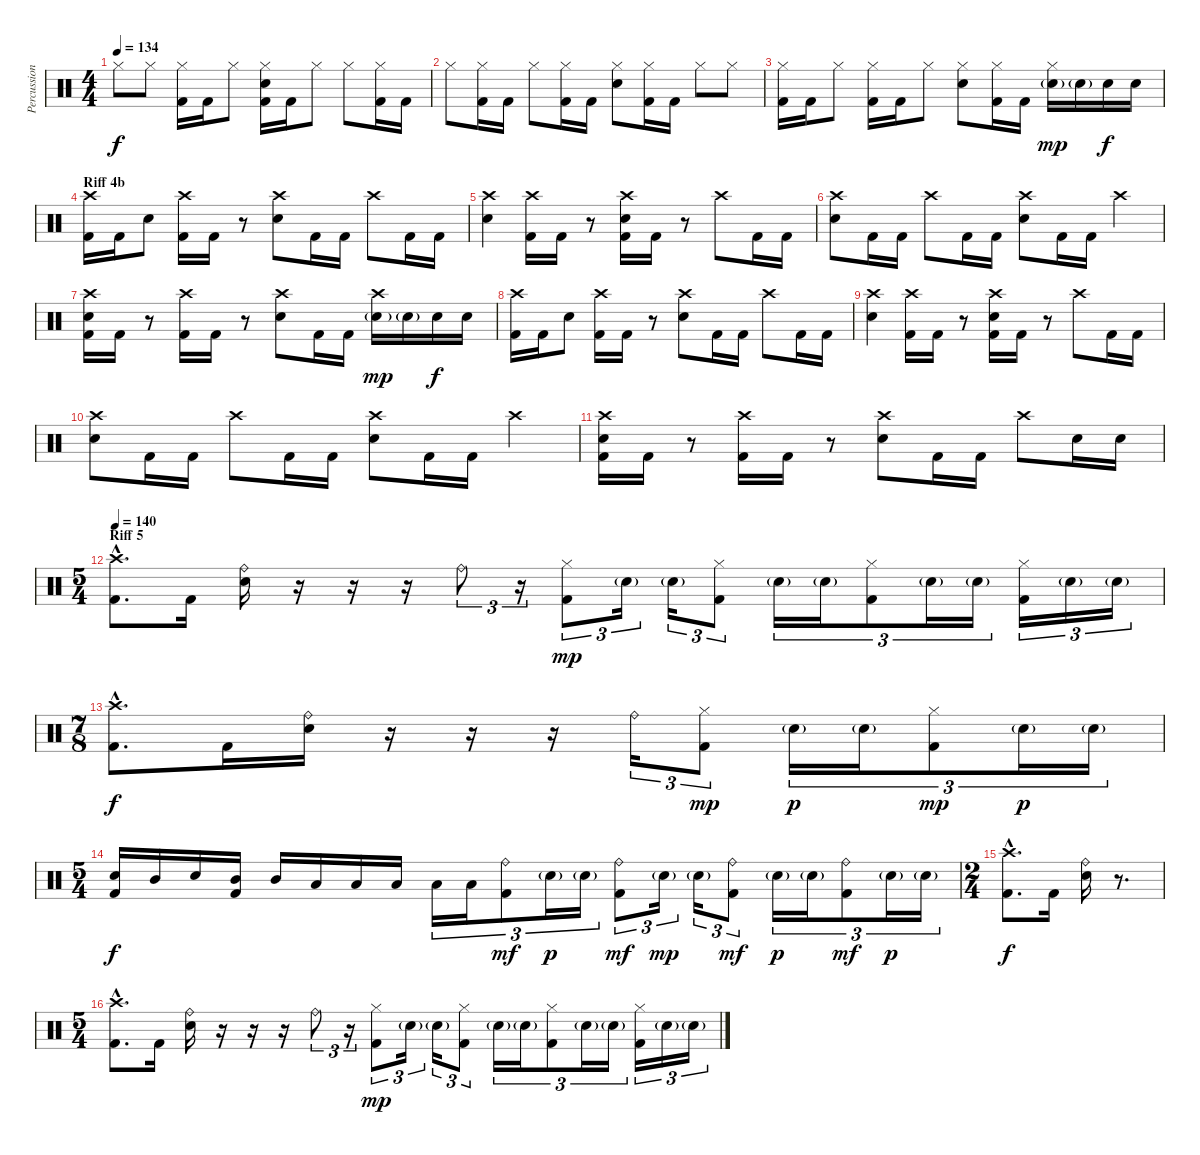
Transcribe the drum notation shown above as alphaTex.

\track ("Percussion" "Percussion") {instrument percussion}
\staff {score}
\articulation defaults
\ts (4 4)
\tempo 134
\clef neutral
\ks c "Hi-Hat (closed)".8{dy f} "Hi-Hat (closed)".8
("Hi-Hat (closed)" "Kick (hit) 2").16 "Kick (hit) 2".16 "Hi-Hat (closed)".8 ("Hi-Hat (closed)" "Electric Snare (hit)" "Kick (hit) 2").16 "Kick (hit) 2".16 "Hi-Hat (closed)".8 "Hi-Hat (closed)".8 ("Hi-Hat (closed)" "Kick (hit) 2").16 "Kick (hit) 2".16 |
"Hi-Hat (closed)".8 ("Hi-Hat (closed)" "Kick (hit) 2").16 "Kick (hit) 2".16 "Hi-Hat (closed)".8 ("Hi-Hat (closed)" "Kick (hit) 2").16 "Kick (hit) 2".16 ("Hi-Hat (closed)" "Electric Snare (hit)").8 ("Hi-Hat (closed)" "Kick (hit) 2").16 "Kick (hit) 2".16 "Hi-Hat (closed)".8 "Hi-Hat (closed)".8 |
("Hi-Hat (closed)" "Kick (hit) 2").16 "Kick (hit) 2".16 "Hi-Hat (closed)".8 ("Hi-Hat (closed)" "Kick (hit) 2").16 "Kick (hit) 2".16 "Hi-Hat (closed)".8 ("Hi-Hat (closed)" "Electric Snare (hit)").8 ("Hi-Hat (closed)" "Kick (hit) 2").16 "Kick (hit) 2".16 ("Hi-Hat (closed)" "Electric Snare (hit)"{g}).16{dy mp} "Electric Snare (hit)"{g}.16 "Electric Snare (hit)".16{dy f} "Electric Snare (hit)".16 |
\section ("" "Riff 4b")
("Crash high (hit)" "Kick (hit) 2").16 "Kick (hit) 2".16 "Electric Snare (hit)".8 ("Crash high (hit)" "Kick (hit) 2").16 "Kick (hit) 2".16 r.8 ("Crash high (hit)" "Electric Snare (hit)").8 "Kick (hit) 2".16 "Kick (hit) 2".16 "Crash high (hit)".8 "Kick (hit) 2".16 "Kick (hit) 2".16 |
("Crash high (hit)" "Electric Snare (hit)").4 ("Crash high (hit)" "Kick (hit) 2").16 "Kick (hit) 2".16 r.8 ("Crash high (hit)" "Electric Snare (hit)" "Kick (hit) 2").16 "Kick (hit) 2".16 r.8 "Crash high (hit)".8 "Kick (hit) 2".16 "Kick (hit) 2".16 |
("Crash high (hit)" "Electric Snare (hit)").8 "Kick (hit) 2".16 "Kick (hit) 2".16 "Crash high (hit)".8 "Kick (hit) 2".16 "Kick (hit) 2".16 ("Crash high (hit)" "Electric Snare (hit)").8 "Kick (hit) 2".16 "Kick (hit) 2".16 "Crash high (hit)".4 |
("Crash high (hit)" "Electric Snare (hit)" "Kick (hit) 2").16 "Kick (hit) 2".16 r.8 ("Crash high (hit)" "Kick (hit) 2").16 "Kick (hit) 2".16 r.8 ("Crash high (hit)" "Electric Snare (hit)").8 "Kick (hit) 2".16 "Kick (hit) 2".16 ("Crash high (hit)" "Electric Snare (hit)"{g}).16{dy mp} "Electric Snare (hit)"{g}.16 "Electric Snare (hit)".16{dy f} "Electric Snare (hit)".16 |
("Crash high (hit)" "Kick (hit) 2").16 "Kick (hit) 2".16 "Electric Snare (hit)".8 ("Crash high (hit)" "Kick (hit) 2").16 "Kick (hit) 2".16 r.8 ("Crash high (hit)" "Electric Snare (hit)").8 "Kick (hit) 2".16 "Kick (hit) 2".16 "Crash high (hit)".8 "Kick (hit) 2".16 "Kick (hit) 2".16 |
("Crash high (hit)" "Electric Snare (hit)").4 ("Crash high (hit)" "Kick (hit) 2").16 "Kick (hit) 2".16 r.8 ("Crash high (hit)" "Electric Snare (hit)" "Kick (hit) 2").16 "Kick (hit) 2".16 r.8 "Crash high (hit)".8 "Kick (hit) 2".16 "Kick (hit) 2".16 |
("Crash high (hit)" "Electric Snare (hit)").8 "Kick (hit) 2".16 "Kick (hit) 2".16 "Crash high (hit)".8 "Kick (hit) 2".16 "Kick (hit) 2".16 ("Crash high (hit)" "Electric Snare (hit)").8 "Kick (hit) 2".16 "Kick (hit) 2".16 "Crash high (hit)".4 |
("Crash high (hit)" "Electric Snare (hit)" "Kick (hit) 2").16 "Kick (hit) 2".16 r.8 ("Crash high (hit)" "Kick (hit) 2").16 "Kick (hit) 2".16 r.8 ("Crash high (hit)" "Electric Snare (hit)").8 "Kick (hit) 2".16 "Kick (hit) 2".16 "Crash high (hit)".8 "Electric Snare (hit)".16 "Electric Snare (hit)".16 |
\ts (5 4)
\section ("" "Riff 5")
\tempo 140
("Crash high (hit)"{hac} "Kick (hit) 2"{hac}).8{d} "Kick (hit) 2".16 ("Ride (bell)" "Electric Snare (hit)").16 r.16 r.16 r.16 "Ride (bell)".8{tu (3 2)} r.16{tu (3 2)} ("Hi-Hat (closed)" "Kick (hit) 2").8{tu (3 2) dy mp} "Electric Snare (hit)"{g}.16{tu (3 2)} "Electric Snare (hit)"{g}.16{tu (3 2)} ("Hi-Hat (closed)" "Kick (hit) 2").8{tu (3 2)} "Electric Snare (hit)"{g}.16{tu (3 2)} "Electric Snare (hit)"{g}.16{tu (3 2)} ("Hi-Hat (closed)" "Kick (hit) 2").8{tu (3 2)} "Electric Snare (hit)"{g}.16{tu (3 2)} "Electric Snare (hit)"{g}.16{tu (3 2)} ("Hi-Hat (closed)" "Kick (hit) 2").16{tu (3 2)} "Electric Snare (hit)"{g}.16{tu (3 2)} "Electric Snare (hit)"{g}.16{tu (3 2)} |
\ts (7 8)
("Crash high (hit)"{hac} "Kick (hit) 2"{hac}).8{d dy f} "Kick (hit) 2".16 ("Ride (bell)" "Electric Snare (hit)").16 r.16 r.16 r.16 "Ride (bell)".16{tu (3 2)} ("Hi-Hat (closed)" "Kick (hit) 2").8{tu (3 2) dy mp} "Electric Snare (hit)"{g}.16{tu (3 2) dy p} "Electric Snare (hit)"{g}.16{tu (3 2)} ("Hi-Hat (closed)" "Kick (hit) 2").8{tu (3 2) dy mp} "Electric Snare (hit)"{g}.16{tu (3 2) dy p} "Electric Snare (hit)"{g}.16{tu (3 2)} |
\ts (5 4)
("Electric Snare (hit)" "Kick (hit) 2").16{dy f} "Mid Tom (hit)".16 "Electric Snare (hit)".16 ("Mid Tom (hit)" "Kick (hit) 2").16 "Mid Tom (hit)".16 "Low Tom (hit)".16 "Low Tom (hit)".16 "Low Floor Tom (hit)".16 "Low Floor Tom (hit)".16{tu (3 2)} "Low Floor Tom (hit)".16{tu (3 2)} ("Ride (bell)" "Kick (hit) 2").8{tu (3 2) dy mf} "Electric Snare (hit)"{g}.16{tu (3 2) dy p} "Electric Snare (hit)"{g}.16{tu (3 2)} ("Ride (bell)" "Kick (hit) 2").8{tu (3 2) dy mf} "Electric Snare (hit)"{g}.16{tu (3 2) dy mp} "Electric Snare (hit)"{g}.16{tu (3 2)} ("Ride (bell)" "Kick (hit) 2").8{tu (3 2) dy mf} "Electric Snare (hit)"{g}.16{tu (3 2) dy p} "Electric Snare (hit)"{g}.16{tu (3 2)} ("Ride (bell)" "Kick (hit) 2").8{tu (3 2) dy mf} "Electric Snare (hit)"{g}.16{tu (3 2) dy p} "Electric Snare (hit)"{g}.16{tu (3 2)} |
\ts (2 4)
("Crash high (hit)"{hac} "Kick (hit) 2"{hac}).8{d dy f} "Kick (hit) 2".16 ("Ride (bell)" "Electric Snare (hit)").16 r.8{d} |
\ts (5 4)
("Crash high (hit)"{hac} "Kick (hit) 2"{hac}).8{d} "Kick (hit) 2".16 ("Ride (bell)" "Electric Snare (hit)").16 r.16 r.16 r.16 "Ride (bell)".8{tu (3 2)} r.16{tu (3 2)} ("Hi-Hat (closed)" "Kick (hit) 2").8{tu (3 2) dy mp} "Electric Snare (hit)"{g}.16{tu (3 2)} "Electric Snare (hit)"{g}.16{tu (3 2)} ("Hi-Hat (closed)" "Kick (hit) 2").8{tu (3 2)} "Electric Snare (hit)"{g}.16{tu (3 2)} "Electric Snare (hit)"{g}.16{tu (3 2)} ("Hi-Hat (closed)" "Kick (hit) 2").8{tu (3 2)} "Electric Snare (hit)"{g}.16{tu (3 2)} "Electric Snare (hit)"{g}.16{tu (3 2)} ("Hi-Hat (closed)" "Kick (hit) 2").16{tu (3 2)} "Electric Snare (hit)"{g}.16{tu (3 2)} "Electric Snare (hit)"{g}.16{tu (3 2)}
